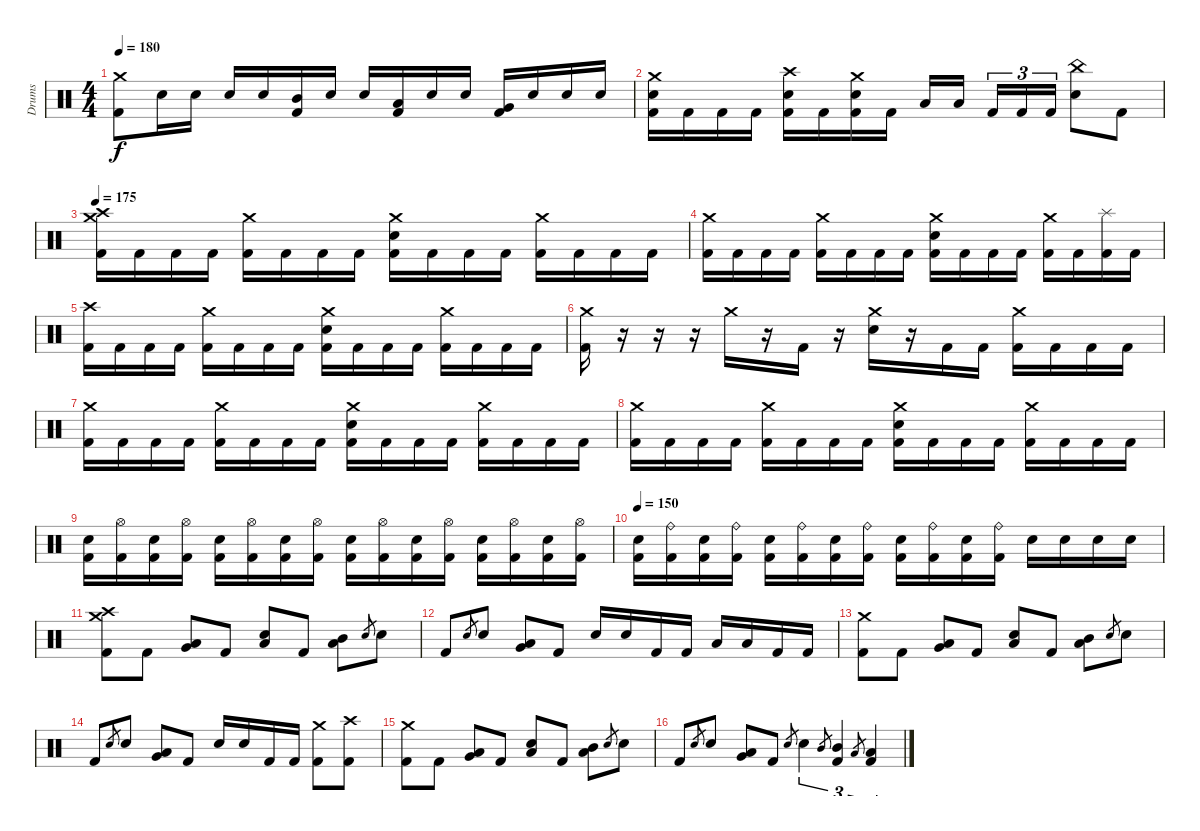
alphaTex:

\track ("Drums" "Drums") {instrument percussion}
\staff {score}
\articulation defaults
\ts (4 4)
\tempo 180
\clef neutral
\ks c
("Crash medium (hit)" "Kick (hit) 2").8{dy f} "Electric Snare (hit)".16 "Electric Snare (hit)".16 "Electric Snare (hit)".16 "Electric Snare (hit)".16 ("Mid Tom (hit)" "Kick (hit) 2").16 "Electric Snare (hit)".16 "Electric Snare (hit)".16 ("Low Tom (hit)" "Kick (hit) 2").16 "Electric Snare (hit)".16 "Electric Snare (hit)".16 ("Very Low Tom (hit)" "Kick (hit) 2").16 "Electric Snare (hit)".16 "Electric Snare (hit)".16 "Electric Snare (hit)".16 |
("Crash medium (hit)" "Electric Snare (hit)" "Kick (hit) 2").16 "Kick (hit) 2".16 "Kick (hit) 2".16 "Kick (hit) 2".16 ("Crash high (hit)" "Electric Snare (hit)" "Kick (hit) 2").16 "Kick (hit) 2".16 ("Crash medium (hit)" "Electric Snare (hit)" "Kick (hit) 2").16 "Kick (hit) 2".16 "Low Tom (hit)".16 "Low Tom (hit)".16{beam splitsecondary} "Kick (hit) 2".16{tu (3 2)} "Kick (hit) 2".16{tu (3 2)} "Kick (hit) 2".16{tu (3 2)} ("China (hit)" "Electric Snare (hit)").8 "Kick (hit) 2".8 |
\tempo 175
("Crash medium (hit)" "Crash high (hit)" "Kick (hit) 2").16 "Kick (hit) 2".16 "Kick (hit) 2".16 "Kick (hit) 2".16 ("Crash medium (hit)" "Kick (hit) 2").16 "Kick (hit) 2".16 "Kick (hit) 2".16 "Kick (hit) 2".16 ("Crash medium (hit)" "Electric Snare (hit)" "Kick (hit) 2").16 "Kick (hit) 2".16 "Kick (hit) 2".16 "Kick (hit) 2".16 ("Crash medium (hit)" "Kick (hit) 2").16 "Kick (hit) 2".16 "Kick (hit) 2".16 "Kick (hit) 2".16 |
("Crash medium (hit)" "Kick (hit) 2").16 "Kick (hit) 2".16 "Kick (hit) 2".16 "Kick (hit) 2".16 ("Crash medium (hit)" "Kick (hit) 2").16 "Kick (hit) 2".16 "Kick (hit) 2".16 "Kick (hit) 2".16 ("Crash medium (hit)" "Electric Snare (hit)" "Kick (hit) 2").16 "Kick (hit) 2".16 "Kick (hit) 2".16 "Kick (hit) 2".16 ("Crash medium (hit)" "Kick (hit) 2").16 "Kick (hit) 2".16 ("Splash (hit)" "Kick (hit) 2").16 "Kick (hit) 2".16 |
("Crash high (hit)" "Kick (hit) 2").16 "Kick (hit) 2".16 "Kick (hit) 2".16 "Kick (hit) 2".16 ("Crash medium (hit)" "Kick (hit) 2").16 "Kick (hit) 2".16 "Kick (hit) 2".16 "Kick (hit) 2".16 ("Crash medium (hit)" "Electric Snare (hit)" "Kick (hit) 2").16 "Kick (hit) 2".16 "Kick (hit) 2".16 "Kick (hit) 2".16 ("Crash medium (hit)" "Kick (hit) 2").16 "Kick (hit) 2".16 "Kick (hit) 2".16 "Kick (hit) 2".16 |
("Crash medium (hit)" "Kick (hit) 2").16 r.16 r.16 r.16 "Crash medium (hit)".16 r.16 "Kick (hit) 2".16 r.16 ("Crash medium (hit)" "Electric Snare (hit)").16 r.16 "Kick (hit) 2".16 "Kick (hit) 2".16 ("Crash medium (hit)" "Kick (hit) 2").16 "Kick (hit) 2".16 "Kick (hit) 2".16 "Kick (hit) 2".16 |
("Crash medium (hit)" "Kick (hit) 2").16 "Kick (hit) 2".16 "Kick (hit) 2".16 "Kick (hit) 2".16 ("Crash medium (hit)" "Kick (hit) 2").16 "Kick (hit) 2".16 "Kick (hit) 2".16 "Kick (hit) 2".16 ("Crash medium (hit)" "Electric Snare (hit)" "Kick (hit) 2").16 "Kick (hit) 2".16 "Kick (hit) 2".16 "Kick (hit) 2".16 ("Crash medium (hit)" "Kick (hit) 2").16 "Kick (hit) 2".16 "Kick (hit) 2".16 "Kick (hit) 2".16 |
("Crash medium (hit)" "Kick (hit) 2").16 "Kick (hit) 2".16 "Kick (hit) 2".16 "Kick (hit) 2".16 ("Crash medium (hit)" "Kick (hit) 2").16 "Kick (hit) 2".16 "Kick (hit) 2".16 "Kick (hit) 2".16 ("Crash medium (hit)" "Electric Snare (hit)" "Kick (hit) 2").16 "Kick (hit) 2".16 "Kick (hit) 2".16 "Kick (hit) 2".16 ("Crash medium (hit)" "Kick (hit) 2").16 "Kick (hit) 2".16 "Kick (hit) 2".16 "Kick (hit) 2".16 |
("Electric Snare (hit)" "Kick (hit) 2").16 ("Hi-Hat (open)" "Kick (hit) 2").16 ("Electric Snare (hit)" "Kick (hit) 2").16 ("Hi-Hat (open)" "Kick (hit) 2").16 ("Electric Snare (hit)" "Kick (hit) 2").16 ("Hi-Hat (open)" "Kick (hit) 2").16 ("Electric Snare (hit)" "Kick (hit) 2").16 ("Hi-Hat (open)" "Kick (hit) 2").16 ("Electric Snare (hit)" "Kick (hit) 2").16 ("Hi-Hat (open)" "Kick (hit) 2").16 ("Electric Snare (hit)" "Kick (hit) 2").16 ("Hi-Hat (open)" "Kick (hit) 2").16 ("Electric Snare (hit)" "Kick (hit) 2").16 ("Hi-Hat (open)" "Kick (hit) 2").16 ("Electric Snare (hit)" "Kick (hit) 2").16 ("Hi-Hat (open)" "Kick (hit) 2").16 |
\tempo 150
("Electric Snare (hit)" "Kick (hit) 2").16 ("Ride (bell)" "Kick (hit) 2").16 ("Electric Snare (hit)" "Kick (hit) 2").16 ("Ride (bell)" "Kick (hit) 2").16 ("Electric Snare (hit)" "Kick (hit) 2").16 ("Ride (bell)" "Kick (hit) 2").16 ("Electric Snare (hit)" "Kick (hit) 2").16 ("Ride (bell)" "Kick (hit) 2").16 ("Electric Snare (hit)" "Kick (hit) 2").16 ("Ride (bell)" "Kick (hit) 2").16 ("Electric Snare (hit)" "Kick (hit) 2").16 ("Ride (bell)" "Kick (hit) 2").16 "Electric Snare (hit)".16 "Electric Snare (hit)".16 "Electric Snare (hit)".16 "Electric Snare (hit)".16 |
("Crash medium (hit)" "Crash high (hit)" "Kick (hit) 2").8 "Kick (hit) 2".8 ("Low Tom (hit)" "Very Low Tom (hit)").8 "Kick (hit) 2".8 ("Low Tom (hit)" "Electric Snare (hit)").8 "Kick (hit) 2".8 ("Mid Tom (hit)" "Low Tom (hit)").8 "Electric Snare (hit)".8{gr} "Electric Snare (hit)".8 |
"Kick (hit) 2".8 "Electric Snare (hit)".8{gr} "Electric Snare (hit)".8 ("Low Tom (hit)" "Very Low Tom (hit)").8 "Kick (hit) 2".8 "Electric Snare (hit)".16 "Electric Snare (hit)".16 "Kick (hit) 2".16 "Kick (hit) 2".16 "Low Tom (hit)".16 "Low Tom (hit)".16 "Kick (hit) 2".16 "Kick (hit) 2".16 |
("Crash medium (hit)" "Kick (hit) 2").8 "Kick (hit) 2".8 ("Low Tom (hit)" "Very Low Tom (hit)").8 "Kick (hit) 2".8 ("Low Tom (hit)" "Electric Snare (hit)").8 "Kick (hit) 2".8 ("Mid Tom (hit)" "Low Tom (hit)").8 "Electric Snare (hit)".8{gr} "Electric Snare (hit)".8 |
"Kick (hit) 2".8 "Electric Snare (hit)".8{gr} "Electric Snare (hit)".8 ("Low Tom (hit)" "Very Low Tom (hit)").8 "Kick (hit) 2".8 "Electric Snare (hit)".16 "Electric Snare (hit)".16 "Kick (hit) 2".16 "Kick (hit) 2".16 ("Crash medium (hit)" "Kick (hit) 2").8 ("Crash high (hit)" "Kick (hit) 2").8 |
("Crash medium (hit)" "Kick (hit) 2").8 "Kick (hit) 2".8 ("Low Tom (hit)" "Very Low Tom (hit)").8 "Kick (hit) 2".8 ("Low Tom (hit)" "Electric Snare (hit)").8 "Kick (hit) 2".8 ("Mid Tom (hit)" "Low Tom (hit)").8 "Electric Snare (hit)".8{gr} "Electric Snare (hit)".8 |
"Kick (hit) 2".8 "Electric Snare (hit)".8{gr} "Electric Snare (hit)".8 ("Low Tom (hit)" "Very Low Tom (hit)").8 "Kick (hit) 2".8 "Electric Snare (hit)".8{gr} "Electric Snare (hit)".4{tu (3 2)} "Mid Tom (hit)".8{gr} ("Mid Tom (hit)" "Kick (hit) 2").4{tu (3 2)} "Low Tom (hit)".8{gr} ("Low Tom (hit)" "Kick (hit) 2").4{tu (3 2)}
